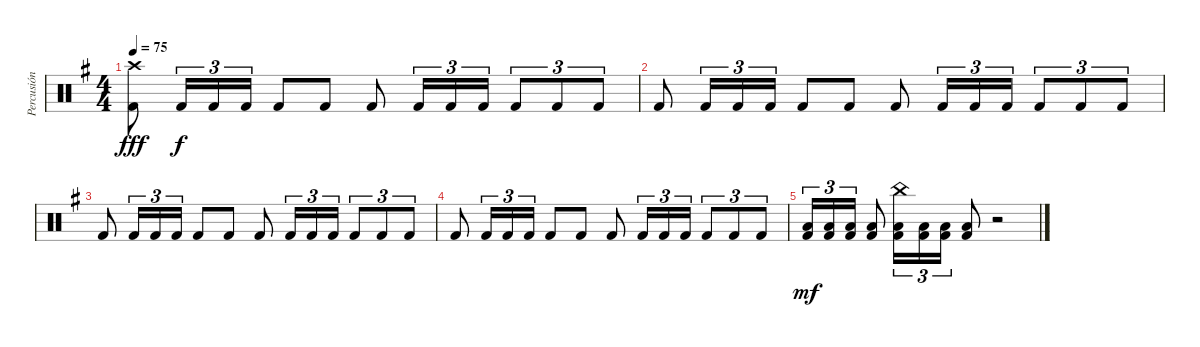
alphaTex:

\track ("Percusión" "Percusión") {instrument percussion}
\staff {score}
\articulation defaults
\ts (4 4)
\tempo 75
\clef neutral
\ks g
("Crash high (hit)" "Kick (hit) 2").8{dy fff} "Kick (hit) 2".16{tu (3 2) dy f} "Kick (hit) 2".16{tu (3 2)} "Kick (hit) 2".16{tu (3 2)} "Kick (hit) 2".8 "Kick (hit) 2".8 "Kick (hit) 2".8 "Kick (hit) 2".16{tu (3 2)} "Kick (hit) 2".16{tu (3 2)} "Kick (hit) 2".16{tu (3 2)} "Kick (hit) 2".8{tu (3 2)} "Kick (hit) 2".8{tu (3 2)} "Kick (hit) 2".8{tu (3 2)} |
"Kick (hit) 2".8 "Kick (hit) 2".16{tu (3 2)} "Kick (hit) 2".16{tu (3 2)} "Kick (hit) 2".16{tu (3 2)} "Kick (hit) 2".8 "Kick (hit) 2".8 "Kick (hit) 2".8 "Kick (hit) 2".16{tu (3 2)} "Kick (hit) 2".16{tu (3 2)} "Kick (hit) 2".16{tu (3 2)} "Kick (hit) 2".8{tu (3 2)} "Kick (hit) 2".8{tu (3 2)} "Kick (hit) 2".8{tu (3 2)} |
"Kick (hit) 2".8 "Kick (hit) 2".16{tu (3 2)} "Kick (hit) 2".16{tu (3 2)} "Kick (hit) 2".16{tu (3 2)} "Kick (hit) 2".8 "Kick (hit) 2".8 "Kick (hit) 2".8 "Kick (hit) 2".16{tu (3 2)} "Kick (hit) 2".16{tu (3 2)} "Kick (hit) 2".16{tu (3 2)} "Kick (hit) 2".8{tu (3 2)} "Kick (hit) 2".8{tu (3 2)} "Kick (hit) 2".8{tu (3 2)} |
"Kick (hit) 2".8 "Kick (hit) 2".16{tu (3 2)} "Kick (hit) 2".16{tu (3 2)} "Kick (hit) 2".16{tu (3 2)} "Kick (hit) 2".8 "Kick (hit) 2".8 "Kick (hit) 2".8 "Kick (hit) 2".16{tu (3 2)} "Kick (hit) 2".16{tu (3 2)} "Kick (hit) 2".16{tu (3 2)} "Kick (hit) 2".8{tu (3 2)} "Kick (hit) 2".8{tu (3 2)} "Kick (hit) 2".8{tu (3 2)} |
("Low Floor Tom (hit)" "Kick (hit) 2").16{tu (3 2) dy mf} ("Low Floor Tom (hit)" "Kick (hit) 2").16{tu (3 2)} ("Low Floor Tom (hit)" "Kick (hit) 2").16{tu (3 2)} ("Low Floor Tom (hit)" "Kick (hit) 2").8 ("China (hit)" "Low Floor Tom (hit)" "Kick (hit) 2").16{tu (3 2)} ("Low Floor Tom (hit)" "Kick (hit) 2").16{tu (3 2)} ("Low Floor Tom (hit)" "Kick (hit) 2").16{tu (3 2)} ("Low Floor Tom (hit)" "Kick (hit) 2").8 r.2
